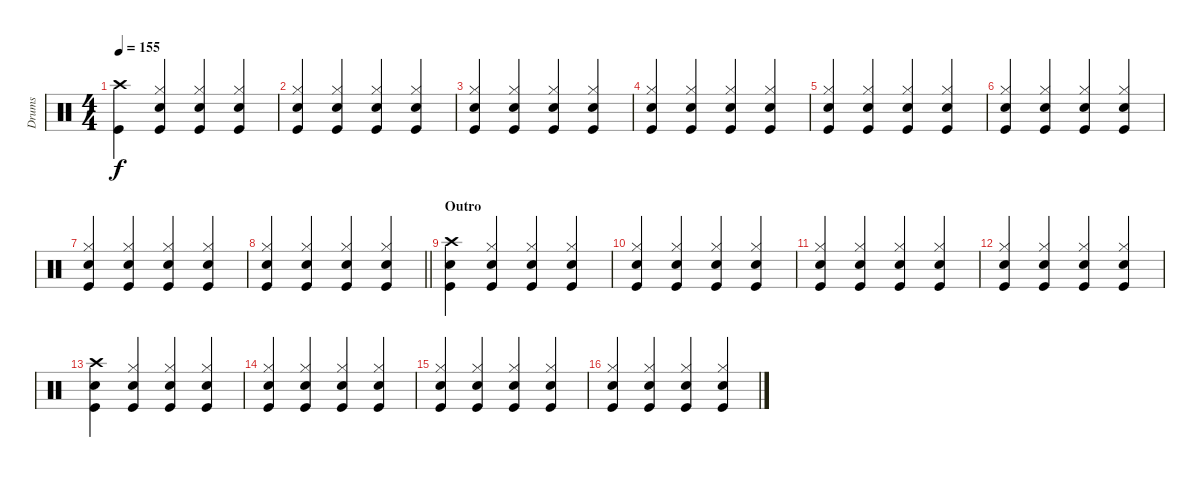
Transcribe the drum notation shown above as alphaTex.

\track ("Drums" "Drums") {instrument percussion}
\staff {score}
\articulation defaults
\ts (4 4)
\tempo 155
\clef neutral
\ks c
("Crash high (hit)" "Kick (hit)").4{dy f} ("Hi-Hat (closed)" "Snare (hit) 2" "Kick (hit)").4 ("Hi-Hat (closed)" "Snare (hit) 2" "Kick (hit)").4 ("Hi-Hat (closed)" "Snare (hit) 2" "Kick (hit)").4 |
("Hi-Hat (closed)" "Snare (hit) 2" "Kick (hit)").4 ("Hi-Hat (closed)" "Snare (hit) 2" "Kick (hit)").4 ("Hi-Hat (closed)" "Snare (hit) 2" "Kick (hit)").4 ("Hi-Hat (closed)" "Snare (hit) 2" "Kick (hit)").4 |
("Hi-Hat (closed)" "Snare (hit) 2" "Kick (hit)").4 ("Hi-Hat (closed)" "Snare (hit) 2" "Kick (hit)").4 ("Hi-Hat (closed)" "Snare (hit) 2" "Kick (hit)").4 ("Hi-Hat (closed)" "Snare (hit) 2" "Kick (hit)").4 |
("Hi-Hat (closed)" "Snare (hit) 2" "Kick (hit)").4 ("Hi-Hat (closed)" "Snare (hit) 2" "Kick (hit)").4 ("Hi-Hat (closed)" "Snare (hit) 2" "Kick (hit)").4 ("Hi-Hat (closed)" "Snare (hit) 2" "Kick (hit)").4 |
("Hi-Hat (closed)" "Snare (hit) 2" "Kick (hit)").4 ("Hi-Hat (closed)" "Snare (hit) 2" "Kick (hit)").4 ("Hi-Hat (closed)" "Snare (hit) 2" "Kick (hit)").4 ("Hi-Hat (closed)" "Snare (hit) 2" "Kick (hit)").4 |
("Hi-Hat (closed)" "Snare (hit) 2" "Kick (hit)").4 ("Hi-Hat (closed)" "Snare (hit) 2" "Kick (hit)").4 ("Hi-Hat (closed)" "Snare (hit) 2" "Kick (hit)").4 ("Hi-Hat (closed)" "Snare (hit) 2" "Kick (hit)").4 |
("Hi-Hat (closed)" "Snare (hit) 2" "Kick (hit)").4 ("Hi-Hat (closed)" "Snare (hit) 2" "Kick (hit)").4 ("Hi-Hat (closed)" "Snare (hit) 2" "Kick (hit)").4 ("Hi-Hat (closed)" "Snare (hit) 2" "Kick (hit)").4 |
\barLineRight lightlight
("Hi-Hat (closed)" "Snare (hit) 2" "Kick (hit)").4 ("Hi-Hat (closed)" "Snare (hit) 2" "Kick (hit)").4 ("Hi-Hat (closed)" "Snare (hit) 2" "Kick (hit)").4 ("Hi-Hat (closed)" "Snare (hit) 2" "Kick (hit)").4 |
\section ("" "Outro")
("Crash high (hit)" "Snare (hit) 2" "Kick (hit)").4 ("Hi-Hat (closed)" "Snare (hit) 2" "Kick (hit)").4 ("Hi-Hat (closed)" "Snare (hit) 2" "Kick (hit)").4 ("Hi-Hat (closed)" "Snare (hit) 2" "Kick (hit)").4 |
("Hi-Hat (closed)" "Snare (hit) 2" "Kick (hit)").4 ("Hi-Hat (closed)" "Snare (hit) 2" "Kick (hit)").4 ("Hi-Hat (closed)" "Snare (hit) 2" "Kick (hit)").4 ("Hi-Hat (closed)" "Snare (hit) 2" "Kick (hit)").4 |
("Hi-Hat (closed)" "Snare (hit) 2" "Kick (hit)").4 ("Hi-Hat (closed)" "Snare (hit) 2" "Kick (hit)").4 ("Hi-Hat (closed)" "Snare (hit) 2" "Kick (hit)").4 ("Hi-Hat (closed)" "Snare (hit) 2" "Kick (hit)").4 |
("Hi-Hat (closed)" "Snare (hit) 2" "Kick (hit)").4 ("Hi-Hat (closed)" "Snare (hit) 2" "Kick (hit)").4 ("Hi-Hat (closed)" "Snare (hit) 2" "Kick (hit)").4 ("Hi-Hat (closed)" "Snare (hit) 2" "Kick (hit)").4 |
("Crash high (hit)" "Snare (hit) 2" "Kick (hit)").4 ("Hi-Hat (closed)" "Snare (hit) 2" "Kick (hit)").4 ("Hi-Hat (closed)" "Snare (hit) 2" "Kick (hit)").4 ("Hi-Hat (closed)" "Snare (hit) 2" "Kick (hit)").4 |
("Hi-Hat (closed)" "Snare (hit) 2" "Kick (hit)").4 ("Hi-Hat (closed)" "Snare (hit) 2" "Kick (hit)").4 ("Hi-Hat (closed)" "Snare (hit) 2" "Kick (hit)").4 ("Hi-Hat (closed)" "Snare (hit) 2" "Kick (hit)").4 |
("Hi-Hat (closed)" "Snare (hit) 2" "Kick (hit)").4 ("Hi-Hat (closed)" "Snare (hit) 2" "Kick (hit)").4 ("Hi-Hat (closed)" "Snare (hit) 2" "Kick (hit)").4 ("Hi-Hat (closed)" "Snare (hit) 2" "Kick (hit)").4 |
("Hi-Hat (closed)" "Snare (hit) 2" "Kick (hit)").4 ("Hi-Hat (closed)" "Snare (hit) 2" "Kick (hit)").4 ("Hi-Hat (closed)" "Snare (hit) 2" "Kick (hit)").4 ("Hi-Hat (closed)" "Snare (hit) 2" "Kick (hit)").4
